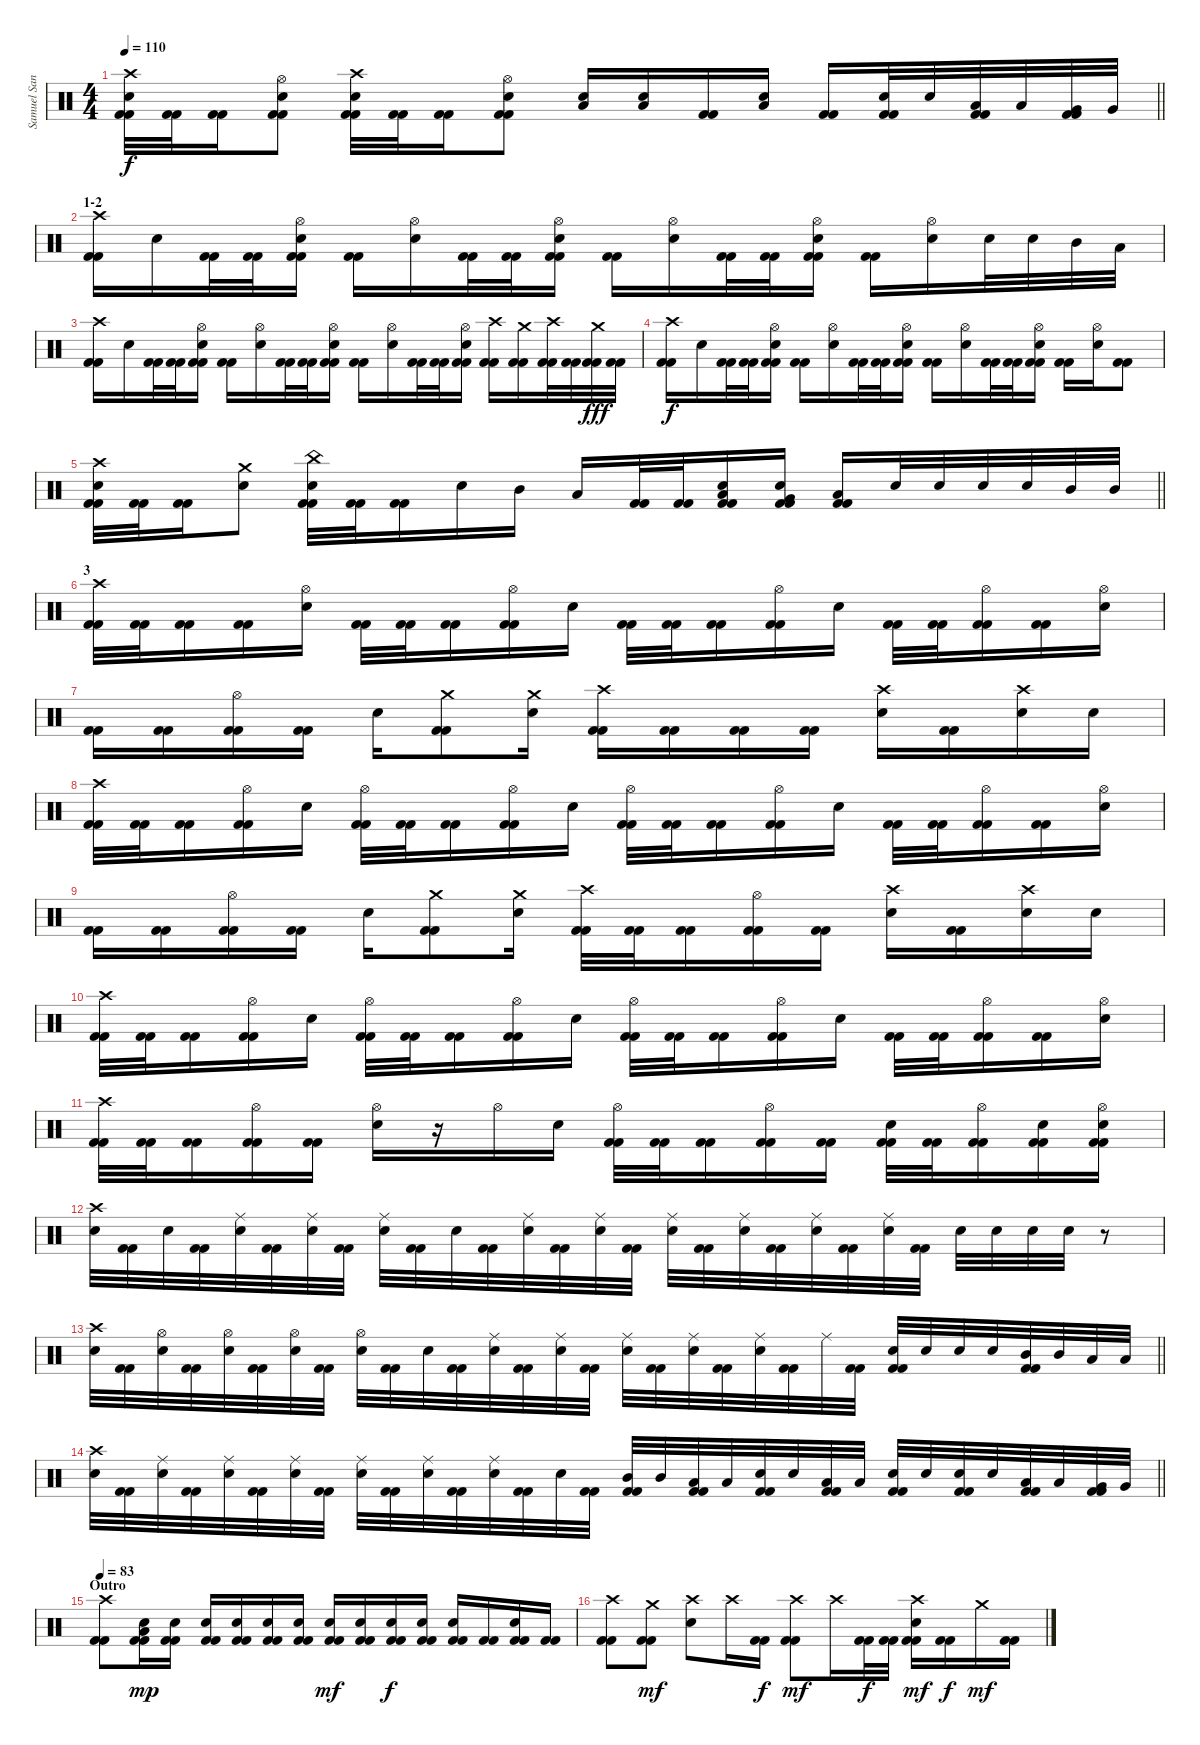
\track ("Samuel Santiago" "Samuel San") {instrument percussion}
\staff {score}
\articulation defaults
\ts (4 4)
\tempo 110
\clef neutral
\barLineRight lightlight
\ks c
("Crash high (hit)" "Electric Snare (hit)" "Kick (hit) 2" "Kick (hit) 2").32{dy f} ("Kick (hit) 2" "Kick (hit) 2").32 ("Kick (hit) 2" "Kick (hit) 2").16 ("Hi-Hat (open)" "Electric Snare (hit)" "Kick (hit) 2" "Kick (hit) 2").8 ("Crash high (hit)" "Electric Snare (hit)" "Kick (hit) 2" "Kick (hit) 2").32 ("Kick (hit) 2" "Kick (hit) 2").32 ("Kick (hit) 2" "Kick (hit) 2").16 ("Hi-Hat (open)" "Electric Snare (hit)" "Kick (hit) 2" "Kick (hit) 2").8 ("Low Tom (hit)" "Electric Snare (hit)").16 ("Low Tom (hit)" "Electric Snare (hit)").16 ("Kick (hit) 2" "Kick (hit) 2").16 ("Low Tom (hit)" "Electric Snare (hit)").16 ("Kick (hit) 2" "Kick (hit) 2").16 ("Electric Snare (hit)" "Kick (hit) 2" "Kick (hit) 2").32 "Electric Snare (hit)".32 ("Low Tom (hit)" "Kick (hit) 2" "Kick (hit) 2").32 "Low Tom (hit)".32 ("Very Low Tom (hit)" "Kick (hit) 2" "Kick (hit) 2").32 "Very Low Tom (hit)".32 |
\section ("" "1-2")
("Crash high (hit)" "Kick (hit) 2" "Kick (hit) 2").16 "Electric Snare (hit)".16 ("Kick (hit) 2" "Kick (hit) 2").32 ("Kick (hit) 2" "Kick (hit) 2").32 ("Hi-Hat (open)" "Electric Snare (hit)" "Kick (hit) 2" "Kick (hit) 2").16 ("Kick (hit) 2" "Kick (hit) 2").16 ("Hi-Hat (open)" "Electric Snare (hit)").16 ("Kick (hit) 2" "Kick (hit) 2").32 ("Kick (hit) 2" "Kick (hit) 2").32 ("Hi-Hat (open)" "Electric Snare (hit)" "Kick (hit) 2" "Kick (hit) 2").16 ("Kick (hit) 2" "Kick (hit) 2").16 ("Hi-Hat (open)" "Electric Snare (hit)").16 ("Kick (hit) 2" "Kick (hit) 2").32 ("Kick (hit) 2" "Kick (hit) 2").32 ("Hi-Hat (open)" "Electric Snare (hit)" "Kick (hit) 2" "Kick (hit) 2").16 ("Kick (hit) 2" "Kick (hit) 2").16 ("Hi-Hat (open)" "Electric Snare (hit)").16 "Electric Snare (hit)".32 "Electric Snare (hit)".32 "Mid Tom (hit)".32 "Low Tom (hit)".32 |
("Crash high (hit)" "Kick (hit) 2" "Kick (hit) 2").16 "Electric Snare (hit)".16 ("Kick (hit) 2" "Kick (hit) 2").32 ("Kick (hit) 2" "Kick (hit) 2").32 ("Hi-Hat (open)" "Electric Snare (hit)" "Kick (hit) 2" "Kick (hit) 2").16 ("Kick (hit) 2" "Kick (hit) 2").16 ("Hi-Hat (open)" "Electric Snare (hit)").16 ("Kick (hit) 2" "Kick (hit) 2").32 ("Kick (hit) 2" "Kick (hit) 2").32 ("Hi-Hat (open)" "Electric Snare (hit)" "Kick (hit) 2" "Kick (hit) 2").16 ("Kick (hit) 2" "Kick (hit) 2").16 ("Hi-Hat (open)" "Electric Snare (hit)").16 ("Kick (hit) 2" "Kick (hit) 2").32 ("Kick (hit) 2" "Kick (hit) 2").32 ("Hi-Hat (open)" "Electric Snare (hit)" "Kick (hit) 2" "Kick (hit) 2").16 ("Crash high (hit)" "Kick (hit) 2" "Kick (hit) 2").16 ("Crash medium (hit)" "Kick (hit) 2" "Kick (hit) 2").16 ("Crash high (hit)" "Kick (hit) 2" "Kick (hit) 2").32 ("Kick (hit) 2" "Kick (hit) 2").32 ("Crash medium (hit)" "Kick (hit) 2" "Kick (hit) 2").32{dy fff} ("Kick (hit) 2" "Kick (hit) 2").32 |
("Crash high (hit)" "Kick (hit) 2" "Kick (hit) 2").16{dy f} "Electric Snare (hit)".16 ("Kick (hit) 2" "Kick (hit) 2").32 ("Kick (hit) 2" "Kick (hit) 2").32 ("Hi-Hat (open)" "Electric Snare (hit)" "Kick (hit) 2" "Kick (hit) 2").16 ("Kick (hit) 2" "Kick (hit) 2").16 ("Hi-Hat (open)" "Electric Snare (hit)").16 ("Kick (hit) 2" "Kick (hit) 2").32 ("Kick (hit) 2" "Kick (hit) 2").32 ("Hi-Hat (open)" "Electric Snare (hit)" "Kick (hit) 2" "Kick (hit) 2").16 ("Kick (hit) 2" "Kick (hit) 2").16 ("Hi-Hat (open)" "Electric Snare (hit)").16 ("Kick (hit) 2" "Kick (hit) 2").32 ("Kick (hit) 2" "Kick (hit) 2").32 ("Hi-Hat (open)" "Electric Snare (hit)" "Kick (hit) 2" "Kick (hit) 2").16 ("Kick (hit) 2" "Kick (hit) 2").16 ("Hi-Hat (open)" "Electric Snare (hit)").16 ("Kick (hit) 2" "Kick (hit) 2").8 |
\barLineRight lightlight
("Crash high (hit)" "Electric Snare (hit)" "Kick (hit) 2" "Kick (hit) 2").32 ("Kick (hit) 2" "Kick (hit) 2").32 ("Kick (hit) 2" "Kick (hit) 2").16 ("Crash medium (hit)" "Electric Snare (hit)").8 ("China (hit)" "Electric Snare (hit)" "Kick (hit) 2" "Kick (hit) 2").32 ("Kick (hit) 2" "Kick (hit) 2").32 ("Kick (hit) 2" "Kick (hit) 2").16 "Electric Snare (hit)".16 "Mid Tom (hit)".16 "Low Tom (hit)".16 ("Kick (hit) 2" "Kick (hit) 2").32 ("Kick (hit) 2" "Kick (hit) 2").32 ("Electric Snare (hit)" "Low Tom (hit)" "Kick (hit) 2" "Kick (hit) 2").16 ("Electric Snare (hit)" "Very Low Tom (hit)" "Kick (hit) 2" "Kick (hit) 2").16 ("Low Floor Tom (hit)" "Kick (hit) 2" "Kick (hit) 2").16 "Electric Snare (hit)".32 "Electric Snare (hit)".32 "Electric Snare (hit)".32 "Electric Snare (hit)".32 "Mid Tom (hit)".32 "Mid Tom (hit)".32 |
\section ("" "3")
("Crash high (hit)" "Kick (hit) 2" "Kick (hit) 2").32 ("Kick (hit) 2" "Kick (hit) 2").32 ("Kick (hit) 2" "Kick (hit) 2").16 ("Kick (hit) 2" "Kick (hit) 2").16 ("Hi-Hat (open)" "Electric Snare (hit)").16 ("Kick (hit) 2" "Kick (hit) 2").32 ("Kick (hit) 2" "Kick (hit) 2").32 ("Kick (hit) 2" "Kick (hit) 2").16 ("Hi-Hat (open)" "Kick (hit) 2" "Kick (hit) 2").16 "Electric Snare (hit)".16 ("Kick (hit) 2" "Kick (hit) 2").32 ("Kick (hit) 2" "Kick (hit) 2").32 ("Kick (hit) 2" "Kick (hit) 2").16 ("Hi-Hat (open)" "Kick (hit) 2" "Kick (hit) 2").16 "Electric Snare (hit)".16 ("Kick (hit) 2" "Kick (hit) 2").32 ("Kick (hit) 2" "Kick (hit) 2").32 ("Hi-Hat (open)" "Kick (hit) 2" "Kick (hit) 2").16 ("Kick (hit) 2" "Kick (hit) 2").16 ("Hi-Hat (open)" "Electric Snare (hit)").16 |
("Kick (hit) 2" "Kick (hit) 2").16 ("Kick (hit) 2" "Kick (hit) 2").16 ("Hi-Hat (open)" "Kick (hit) 2" "Kick (hit) 2").16 ("Kick (hit) 2" "Kick (hit) 2").16 "Electric Snare (hit)".16 ("Crash medium (hit)" "Kick (hit) 2" "Kick (hit) 2").8 ("Crash medium (hit)" "Electric Snare (hit)").16 ("Crash high (hit)" "Kick (hit) 2" "Kick (hit) 2").16 ("Kick (hit) 2" "Kick (hit) 2").16 ("Kick (hit) 2" "Kick (hit) 2").16 ("Kick (hit) 2" "Kick (hit) 2").16 ("Crash high (hit)" "Electric Snare (hit)").16 ("Kick (hit) 2" "Kick (hit) 2").16 ("Crash high (hit)" "Electric Snare (hit)").16 "Electric Snare (hit)".16 |
("Crash high (hit)" "Kick (hit) 2" "Kick (hit) 2").32 ("Kick (hit) 2" "Kick (hit) 2").32 ("Kick (hit) 2" "Kick (hit) 2").16 ("Hi-Hat (open)" "Kick (hit) 2" "Kick (hit) 2").16 "Electric Snare (hit)".16 ("Hi-Hat (open)" "Kick (hit) 2" "Kick (hit) 2").32 ("Kick (hit) 2" "Kick (hit) 2").32 ("Kick (hit) 2" "Kick (hit) 2").16 ("Hi-Hat (open)" "Kick (hit) 2" "Kick (hit) 2").16 "Electric Snare (hit)".16 ("Hi-Hat (open)" "Kick (hit) 2" "Kick (hit) 2").32 ("Kick (hit) 2" "Kick (hit) 2").32 ("Kick (hit) 2" "Kick (hit) 2").16 ("Hi-Hat (open)" "Kick (hit) 2" "Kick (hit) 2").16 "Electric Snare (hit)".16 ("Kick (hit) 2" "Kick (hit) 2").32 ("Kick (hit) 2" "Kick (hit) 2").32 ("Hi-Hat (open)" "Kick (hit) 2" "Kick (hit) 2").16 ("Kick (hit) 2" "Kick (hit) 2").16 ("Hi-Hat (open)" "Electric Snare (hit)").16 |
("Kick (hit) 2" "Kick (hit) 2").16 ("Kick (hit) 2" "Kick (hit) 2").16 ("Hi-Hat (open)" "Kick (hit) 2" "Kick (hit) 2").16 ("Kick (hit) 2" "Kick (hit) 2").16 "Electric Snare (hit)".16 ("Crash medium (hit)" "Kick (hit) 2" "Kick (hit) 2").8 ("Crash medium (hit)" "Electric Snare (hit)").16 ("Crash high (hit)" "Kick (hit) 2" "Kick (hit) 2").32 ("Kick (hit) 2" "Kick (hit) 2").32 ("Kick (hit) 2" "Kick (hit) 2").16 ("Hi-Hat (open)" "Kick (hit) 2" "Kick (hit) 2").16 ("Kick (hit) 2" "Kick (hit) 2").16 ("Crash high (hit)" "Electric Snare (hit)").16 ("Kick (hit) 2" "Kick (hit) 2").16 ("Crash high (hit)" "Electric Snare (hit)").16 "Electric Snare (hit)".16 |
("Crash high (hit)" "Kick (hit) 2" "Kick (hit) 2").32 ("Kick (hit) 2" "Kick (hit) 2").32 ("Kick (hit) 2" "Kick (hit) 2").16 ("Hi-Hat (open)" "Kick (hit) 2" "Kick (hit) 2").16 "Electric Snare (hit)".16 ("Hi-Hat (open)" "Kick (hit) 2" "Kick (hit) 2").32 ("Kick (hit) 2" "Kick (hit) 2").32 ("Kick (hit) 2" "Kick (hit) 2").16 ("Hi-Hat (open)" "Kick (hit) 2" "Kick (hit) 2").16 "Electric Snare (hit)".16 ("Hi-Hat (open)" "Kick (hit) 2" "Kick (hit) 2").32 ("Kick (hit) 2" "Kick (hit) 2").32 ("Kick (hit) 2" "Kick (hit) 2").16 ("Hi-Hat (open)" "Kick (hit) 2" "Kick (hit) 2").16 "Electric Snare (hit)".16 ("Kick (hit) 2" "Kick (hit) 2").32 ("Kick (hit) 2" "Kick (hit) 2").32 ("Hi-Hat (open)" "Kick (hit) 2" "Kick (hit) 2").16 ("Kick (hit) 2" "Kick (hit) 2").16 ("Hi-Hat (open)" "Electric Snare (hit)").16 |
("Crash high (hit)" "Kick (hit) 2" "Kick (hit) 2").32 ("Kick (hit) 2" "Kick (hit) 2").32 ("Kick (hit) 2" "Kick (hit) 2").16 ("Hi-Hat (open)" "Kick (hit) 2" "Kick (hit) 2").16 ("Kick (hit) 2" "Kick (hit) 2").16 ("Hi-Hat (open)" "Electric Snare (hit)").16 r.16 "Hi-Hat (open)".16 "Electric Snare (hit)".16 ("Hi-Hat (open)" "Kick (hit) 2" "Kick (hit) 2").32 ("Kick (hit) 2" "Kick (hit) 2").32 ("Kick (hit) 2" "Kick (hit) 2").16 ("Hi-Hat (open)" "Kick (hit) 2" "Kick (hit) 2").16 ("Kick (hit) 2" "Kick (hit) 2").16 ("Electric Snare (hit)" "Kick (hit) 2" "Kick (hit) 2").32 ("Kick (hit) 2" "Kick (hit) 2").32 ("Hi-Hat (open)" "Kick (hit) 2" "Kick (hit) 2").16 ("Electric Snare (hit)" "Kick (hit) 2" "Kick (hit) 2").16 ("Hi-Hat (open)" "Electric Snare (hit)" "Kick (hit) 2" "Kick (hit) 2").16 |
("Crash high (hit)" "Electric Snare (hit)").32 ("Kick (hit) 2" "Kick (hit) 2").32 "Electric Snare (hit)".32 ("Kick (hit) 2" "Kick (hit) 2").32 ("Ride (middle)" "Electric Snare (hit)").32 ("Kick (hit) 2" "Kick (hit) 2").32 ("Ride (middle)" "Electric Snare (hit)").32 ("Kick (hit) 2" "Kick (hit) 2").32 ("Ride (middle)" "Electric Snare (hit)").32 ("Kick (hit) 2" "Kick (hit) 2").32 "Electric Snare (hit)".32 ("Kick (hit) 2" "Kick (hit) 2").32 ("Ride (middle)" "Electric Snare (hit)").32 ("Kick (hit) 2" "Kick (hit) 2").32 ("Ride (middle)" "Electric Snare (hit)").32 ("Kick (hit) 2" "Kick (hit) 2").32 ("Ride (middle)" "Electric Snare (hit)").32 ("Kick (hit) 2" "Kick (hit) 2").32 ("Ride (middle)" "Electric Snare (hit)").32 ("Kick (hit) 2" "Kick (hit) 2").32 ("Ride (middle)" "Electric Snare (hit)").32 ("Kick (hit) 2" "Kick (hit) 2").32 ("Ride (middle)" "Electric Snare (hit)").32 ("Kick (hit) 2" "Kick (hit) 2").32 "Electric Snare (hit)".32 "Electric Snare (hit)".32 "Electric Snare (hit)".32 "Electric Snare (hit)".32 r.8 |
\barLineRight lightlight
("Crash high (hit)" "Electric Snare (hit)").32 ("Kick (hit) 2" "Kick (hit) 2").32 ("Hi-Hat (open)" "Electric Snare (hit)").32 ("Kick (hit) 2" "Kick (hit) 2").32 ("Hi-Hat (open)" "Electric Snare (hit)").32 ("Kick (hit) 2" "Kick (hit) 2").32 ("Hi-Hat (open)" "Electric Snare (hit)").32 ("Kick (hit) 2" "Kick (hit) 2").32 ("Hi-Hat (open)" "Electric Snare (hit)").32 ("Kick (hit) 2" "Kick (hit) 2").32 "Electric Snare (hit)".32 ("Kick (hit) 2" "Kick (hit) 2").32 ("Ride (middle)" "Electric Snare (hit)").32 ("Kick (hit) 2" "Kick (hit) 2").32 ("Ride (middle)" "Electric Snare (hit)").32 ("Kick (hit) 2" "Kick (hit) 2").32 ("Ride (middle)" "Electric Snare (hit)").32 ("Kick (hit) 2" "Kick (hit) 2").32 ("Ride (middle)" "Electric Snare (hit)").32 ("Kick (hit) 2" "Kick (hit) 2").32 ("Ride (middle)" "Electric Snare (hit)").32 ("Kick (hit) 2" "Kick (hit) 2").32 "Ride (middle)".32 ("Kick (hit) 2" "Kick (hit) 2").32 ("Electric Snare (hit)" "Kick (hit) 2" "Kick (hit) 2").32 "Electric Snare (hit)".32 "Electric Snare (hit)".32 "Electric Snare (hit)".32 ("Mid Tom (hit)" "Kick (hit) 2" "Kick (hit) 2").32 "Mid Tom (hit)".32 "Low Tom (hit)".32 "Low Tom (hit)".32 |
\barLineRight lightlight
("Crash high (hit)" "Electric Snare (hit)").32 ("Kick (hit) 2" "Kick (hit) 2").32 ("Ride (middle)" "Electric Snare (hit)").32 ("Kick (hit) 2" "Kick (hit) 2").32 ("Ride (middle)" "Electric Snare (hit)").32 ("Kick (hit) 2" "Kick (hit) 2").32 ("Ride (middle)" "Electric Snare (hit)").32 ("Kick (hit) 2" "Kick (hit) 2").32 ("Ride (middle)" "Electric Snare (hit)").32 ("Kick (hit) 2" "Kick (hit) 2").32 ("Ride (middle)" "Electric Snare (hit)").32 ("Kick (hit) 2" "Kick (hit) 2").32 ("Ride (middle)" "Electric Snare (hit)").32 ("Kick (hit) 2" "Kick (hit) 2").32 "Electric Snare (hit)".32 ("Kick (hit) 2" "Kick (hit) 2").32 ("Mid Tom (hit)" "Kick (hit) 2" "Kick (hit) 2").32 "Mid Tom (hit)".32 ("Low Tom (hit)" "Kick (hit) 2" "Kick (hit) 2").32 "Low Tom (hit)".32 ("Electric Snare (hit)" "Kick (hit) 2" "Kick (hit) 2").32 "Electric Snare (hit)".32 ("Low Tom (hit)" "Kick (hit) 2" "Kick (hit) 2").32 "Low Tom (hit)".32 ("Electric Snare (hit)" "Kick (hit) 2" "Kick (hit) 2").32 "Electric Snare (hit)".32 ("Electric Snare (hit)" "Kick (hit) 2" "Kick (hit) 2").32 "Electric Snare (hit)".32 ("Low Tom (hit)" "Kick (hit) 2" "Kick (hit) 2").32 "Low Tom (hit)".32 ("Very Low Tom (hit)" "Kick (hit) 2" "Kick (hit) 2").32 "Very Low Tom (hit)".32 |
\section ("" "Outro")
\tempo 83
("Crash high (hit)" "Kick (hit) 2" "Kick (hit) 2").8 ("Low Tom (hit)" "Electric Snare (hit)" "Kick (hit) 2" "Kick (hit) 2").16{dy mp} ("Electric Snare (hit)" "Kick (hit) 2" "Kick (hit) 2").16 ("Electric Snare (hit)" "Kick (hit) 2" "Kick (hit) 2").16 ("Electric Snare (hit)" "Kick (hit) 2" "Kick (hit) 2").16 ("Electric Snare (hit)" "Kick (hit) 2" "Kick (hit) 2").16 ("Electric Snare (hit)" "Kick (hit) 2" "Kick (hit) 2").16 ("Electric Snare (hit)" "Kick (hit) 2" "Kick (hit) 2").16{dy mf} ("Electric Snare (hit)" "Kick (hit) 2" "Kick (hit) 2").16 ("Electric Snare (hit)" "Kick (hit) 2" "Kick (hit) 2").16{dy f} ("Electric Snare (hit)" "Kick (hit) 2" "Kick (hit) 2").16 ("Electric Snare (hit)" "Kick (hit) 2" "Kick (hit) 2").16 ("Kick (hit) 2" "Kick (hit) 2").16 ("Electric Snare (hit)" "Kick (hit) 2" "Kick (hit) 2").16 ("Kick (hit) 2" "Kick (hit) 2").16 |
("Crash high (hit)" "Kick (hit) 2" "Kick (hit) 2").8 ("Crash medium (hit)" "Kick (hit) 2" "Kick (hit) 2").8{dy mf} ("Crash high (hit)" "Electric Snare (hit)").8 "Crash high (hit)".16 ("Kick (hit) 2" "Kick (hit) 2").16{dy f} ("Crash high (hit)" "Kick (hit) 2" "Kick (hit) 2").8{dy mf} "Crash high (hit)".16 ("Kick (hit) 2" "Kick (hit) 2").32{dy f} ("Kick (hit) 2" "Kick (hit) 2").32 ("Crash high (hit)" "Electric Snare (hit)" "Kick (hit) 2" "Kick (hit) 2").16{dy mf} ("Kick (hit) 2" "Kick (hit) 2").16{dy f} "Crash medium (hit)".16{dy mf} ("Kick (hit) 2" "Kick (hit) 2").16
